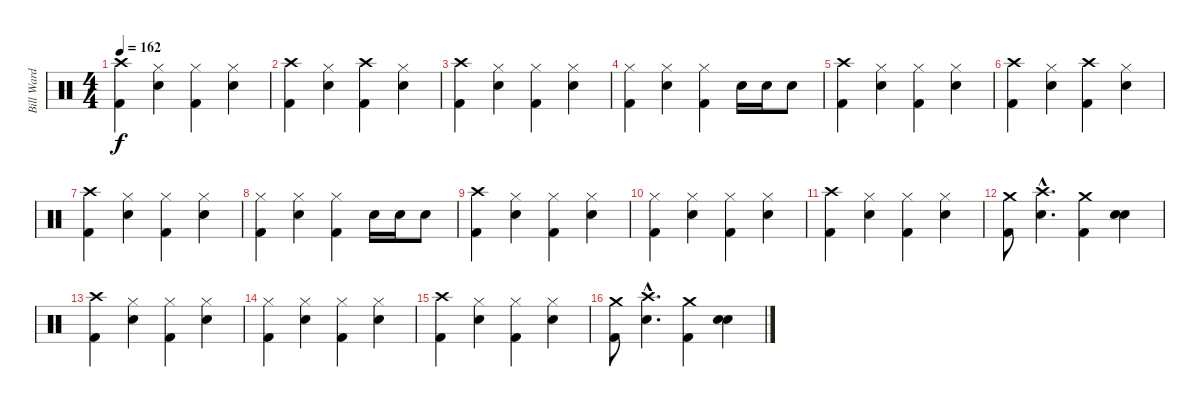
\track ("Bill Ward" "Bill Ward") {instrument percussion}
\staff {score}
\articulation defaults
\ts (4 4)
\tempo 162
\clef neutral
\ks c
("Crash high (hit)" "Kick (hit) 2").4{dy f} ("Hi-Hat (closed)" "Snare (hit) 2").4 ("Hi-Hat (closed)" "Kick (hit) 2").4 ("Hi-Hat (closed)" "Snare (hit) 2").4 |
("Crash high (hit)" "Kick (hit) 2").4 ("Hi-Hat (closed)" "Snare (hit) 2").4 ("Crash high (hit)" "Kick (hit) 2").4 ("Hi-Hat (closed)" "Snare (hit) 2").4 |
("Crash high (hit)" "Kick (hit) 2").4 ("Hi-Hat (closed)" "Snare (hit) 2").4 ("Hi-Hat (closed)" "Kick (hit) 2").4 ("Hi-Hat (closed)" "Snare (hit) 2").4 |
("Hi-Hat (closed)" "Kick (hit) 2").4 ("Hi-Hat (closed)" "Snare (hit) 2").4 ("Hi-Hat (closed)" "Kick (hit) 2").4 "Snare (hit) 2".16 "Snare (hit) 2".16 "Snare (hit) 2".8 |
("Crash high (hit)" "Kick (hit) 2").4 ("Hi-Hat (closed)" "Snare (hit) 2").4 ("Hi-Hat (closed)" "Kick (hit) 2").4 ("Hi-Hat (closed)" "Snare (hit) 2").4 |
("Crash high (hit)" "Kick (hit) 2").4 ("Hi-Hat (closed)" "Snare (hit) 2").4 ("Crash high (hit)" "Kick (hit) 2").4 ("Hi-Hat (closed)" "Snare (hit) 2").4 |
("Crash high (hit)" "Kick (hit) 2").4 ("Hi-Hat (closed)" "Snare (hit) 2").4 ("Hi-Hat (closed)" "Kick (hit) 2").4 ("Hi-Hat (closed)" "Snare (hit) 2").4 |
("Hi-Hat (closed)" "Kick (hit) 2").4 ("Hi-Hat (closed)" "Snare (hit) 2").4 ("Hi-Hat (closed)" "Kick (hit) 2").4 "Snare (hit) 2".16 "Snare (hit) 2".16 "Snare (hit) 2".8 |
("Crash high (hit)" "Kick (hit) 2").4 ("Hi-Hat (closed)" "Snare (hit) 2").4 ("Hi-Hat (closed)" "Kick (hit) 2").4 ("Hi-Hat (closed)" "Snare (hit) 2").4 |
("Hi-Hat (closed)" "Kick (hit) 2").4 ("Hi-Hat (closed)" "Snare (hit) 2").4 ("Hi-Hat (closed)" "Kick (hit) 2").4 ("Hi-Hat (closed)" "Snare (hit) 2").4 |
("Crash high (hit)" "Kick (hit) 2").4 ("Hi-Hat (closed)" "Snare (hit) 2").4 ("Hi-Hat (closed)" "Kick (hit) 2").4 ("Hi-Hat (closed)" "Snare (hit) 2").4 |
("Kick (hit) 2" "Crash medium (hit)").8 ("Snare (hit) 2"{hac} "Crash high (hit)"{hac}).4{d} ("Kick (hit) 2" "Crash medium (hit)").4 ("Snare (hit) 2" "Snare (hit) 2").4{bd 480} |
("Crash high (hit)" "Kick (hit) 2").4 ("Hi-Hat (closed)" "Snare (hit) 2").4 ("Hi-Hat (closed)" "Kick (hit) 2").4 ("Hi-Hat (closed)" "Snare (hit) 2").4 |
("Hi-Hat (closed)" "Kick (hit) 2").4 ("Hi-Hat (closed)" "Snare (hit) 2").4 ("Hi-Hat (closed)" "Kick (hit) 2").4 ("Hi-Hat (closed)" "Snare (hit) 2").4 |
("Crash high (hit)" "Kick (hit) 2").4 ("Hi-Hat (closed)" "Snare (hit) 2").4 ("Hi-Hat (closed)" "Kick (hit) 2").4 ("Hi-Hat (closed)" "Snare (hit) 2").4 |
("Kick (hit) 2" "Crash medium (hit)").8 ("Snare (hit) 2"{hac} "Crash high (hit)"{hac}).4{d} ("Kick (hit) 2" "Crash medium (hit)").4 ("Snare (hit) 2" "Snare (hit) 2").4{bd 480}
